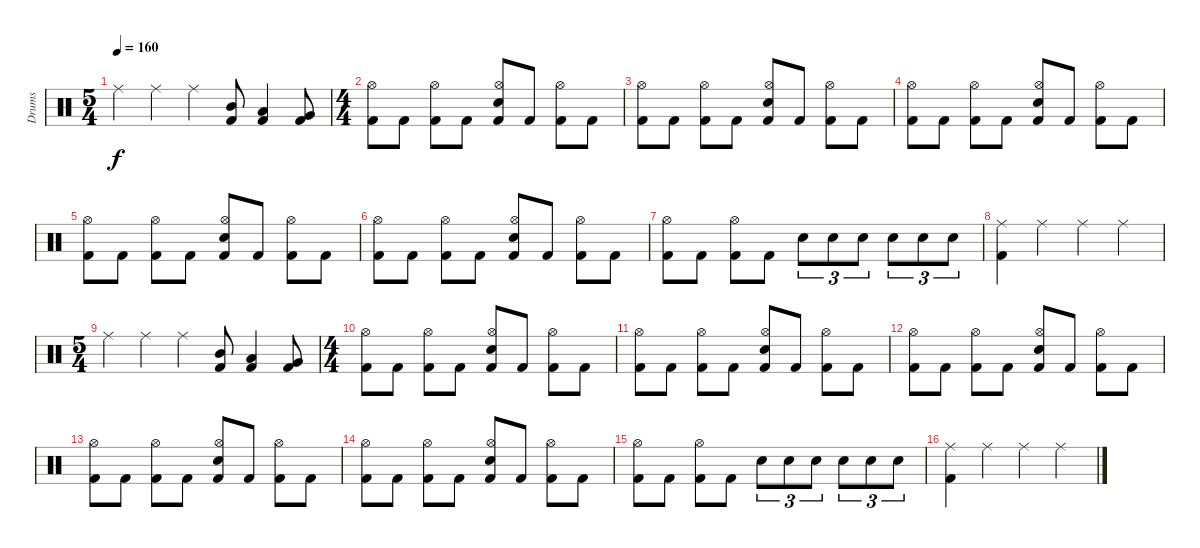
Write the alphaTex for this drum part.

\track ("Drums" "Drums") {instrument percussion}
\staff {score}
\articulation defaults
\ts (5 4)
\tempo 160
\clef neutral
\ks c "Ride (middle)".4{dy f} "Ride (middle)".4 "Ride (middle)".4
("Mid Tom (hit)" "Kick (hit) 2").8 ("Low Tom (hit)" "Kick (hit) 2").4 ("Very Low Tom (hit)" "Kick (hit) 2").8 |
\ts (4 4)
("Hi-Hat (open)" "Kick (hit) 2").8 "Kick (hit) 2".8 ("Hi-Hat (open)" "Kick (hit) 2").8 "Kick (hit) 2".8 ("Hi-Hat (open)" "Electric Snare (hit)" "Kick (hit) 2").8 "Kick (hit) 2".8 ("Hi-Hat (open)" "Kick (hit) 2").8 "Kick (hit) 2".8 |
("Hi-Hat (open)" "Kick (hit) 2").8 "Kick (hit) 2".8 ("Hi-Hat (open)" "Kick (hit) 2").8 "Kick (hit) 2".8 ("Hi-Hat (open)" "Electric Snare (hit)" "Kick (hit) 2").8 "Kick (hit) 2".8 ("Hi-Hat (open)" "Kick (hit) 2").8 "Kick (hit) 2".8 |
("Hi-Hat (open)" "Kick (hit) 2").8 "Kick (hit) 2".8 ("Hi-Hat (open)" "Kick (hit) 2").8 "Kick (hit) 2".8 ("Hi-Hat (open)" "Electric Snare (hit)" "Kick (hit) 2").8 "Kick (hit) 2".8 ("Hi-Hat (open)" "Kick (hit) 2").8 "Kick (hit) 2".8 |
("Hi-Hat (open)" "Kick (hit) 2").8 "Kick (hit) 2".8 ("Hi-Hat (open)" "Kick (hit) 2").8 "Kick (hit) 2".8 ("Hi-Hat (open)" "Electric Snare (hit)" "Kick (hit) 2").8 "Kick (hit) 2".8 ("Hi-Hat (open)" "Kick (hit) 2").8 "Kick (hit) 2".8 |
("Hi-Hat (open)" "Kick (hit) 2").8 "Kick (hit) 2".8 ("Hi-Hat (open)" "Kick (hit) 2").8 "Kick (hit) 2".8 ("Hi-Hat (open)" "Electric Snare (hit)" "Kick (hit) 2").8 "Kick (hit) 2".8 ("Hi-Hat (open)" "Kick (hit) 2").8 "Kick (hit) 2".8 |
("Hi-Hat (open)" "Kick (hit) 2").8 "Kick (hit) 2".8 ("Hi-Hat (open)" "Kick (hit) 2").8 "Kick (hit) 2".8 "Snare (hit) 2".8{tu (3 2)} "Snare (hit) 2".8{tu (3 2)} "Snare (hit) 2".8{tu (3 2)} "Snare (hit) 2".8{tu (3 2)} "Snare (hit) 2".8{tu (3 2)} "Snare (hit) 2".8{tu (3 2)} |
("Ride (middle)" "Kick (hit) 2").4 "Ride (middle)".4 "Ride (middle)".4 "Ride (middle)".4 |
\ts (5 4)
"Ride (middle)".4 "Ride (middle)".4 "Ride (middle)".4 ("Mid Tom (hit)" "Kick (hit) 2").8 ("Low Tom (hit)" "Kick (hit) 2").4 ("Very Low Tom (hit)" "Kick (hit) 2").8 |
\ts (4 4)
("Hi-Hat (open)" "Kick (hit) 2").8 "Kick (hit) 2".8 ("Hi-Hat (open)" "Kick (hit) 2").8 "Kick (hit) 2".8 ("Hi-Hat (open)" "Electric Snare (hit)" "Kick (hit) 2").8 "Kick (hit) 2".8 ("Hi-Hat (open)" "Kick (hit) 2").8 "Kick (hit) 2".8 |
("Hi-Hat (open)" "Kick (hit) 2").8 "Kick (hit) 2".8 ("Hi-Hat (open)" "Kick (hit) 2").8 "Kick (hit) 2".8 ("Hi-Hat (open)" "Electric Snare (hit)" "Kick (hit) 2").8 "Kick (hit) 2".8 ("Hi-Hat (open)" "Kick (hit) 2").8 "Kick (hit) 2".8 |
("Hi-Hat (open)" "Kick (hit) 2").8 "Kick (hit) 2".8 ("Hi-Hat (open)" "Kick (hit) 2").8 "Kick (hit) 2".8 ("Hi-Hat (open)" "Electric Snare (hit)" "Kick (hit) 2").8 "Kick (hit) 2".8 ("Hi-Hat (open)" "Kick (hit) 2").8 "Kick (hit) 2".8 |
("Hi-Hat (open)" "Kick (hit) 2").8 "Kick (hit) 2".8 ("Hi-Hat (open)" "Kick (hit) 2").8 "Kick (hit) 2".8 ("Hi-Hat (open)" "Electric Snare (hit)" "Kick (hit) 2").8 "Kick (hit) 2".8 ("Hi-Hat (open)" "Kick (hit) 2").8 "Kick (hit) 2".8 |
("Hi-Hat (open)" "Kick (hit) 2").8 "Kick (hit) 2".8 ("Hi-Hat (open)" "Kick (hit) 2").8 "Kick (hit) 2".8 ("Hi-Hat (open)" "Electric Snare (hit)" "Kick (hit) 2").8 "Kick (hit) 2".8 ("Hi-Hat (open)" "Kick (hit) 2").8 "Kick (hit) 2".8 |
("Hi-Hat (open)" "Kick (hit) 2").8 "Kick (hit) 2".8 ("Hi-Hat (open)" "Kick (hit) 2").8 "Kick (hit) 2".8 "Snare (hit) 2".8{tu (3 2)} "Snare (hit) 2".8{tu (3 2)} "Snare (hit) 2".8{tu (3 2)} "Snare (hit) 2".8{tu (3 2)} "Snare (hit) 2".8{tu (3 2)} "Snare (hit) 2".8{tu (3 2)} |
("Ride (middle)" "Kick (hit) 2").4 "Ride (middle)".4 "Ride (middle)".4 "Ride (middle)".4
